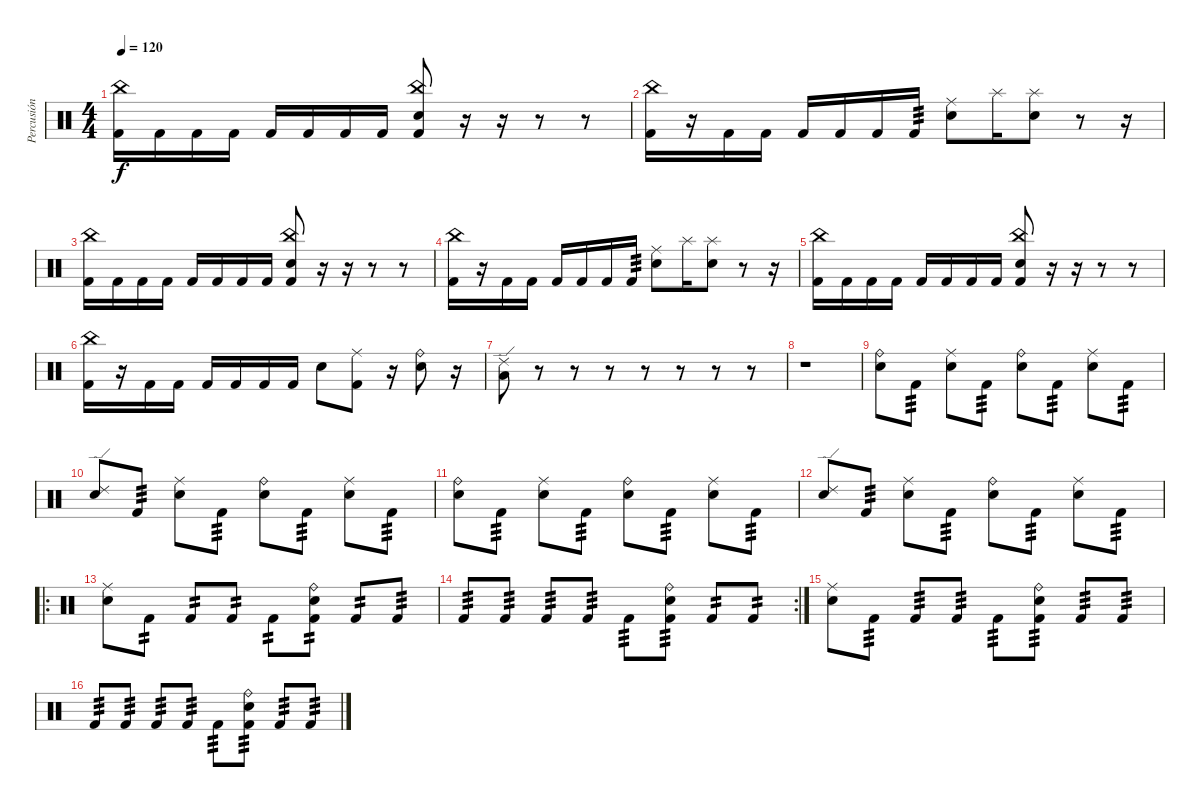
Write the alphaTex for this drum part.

\track ("Percusión" "Percusión") {instrument percussion}
\staff {score}
\articulation defaults
\ts (4 4)
\tempo 120
\clef neutral
\ks c
("Kick (hit) 2" "China (hit)").16{dy f} "Kick (hit) 2".16 "Kick (hit) 2".16 "Kick (hit) 2".16 "Kick (hit) 2".16 "Kick (hit) 2".16 "Kick (hit) 2".16 "Kick (hit) 2".16 ("Kick (hit) 2" "Electric Snare (hit)" "China (hit)").8 r.16 r.16 r.8 r.8 |
("China (hit)" "Kick (hit) 2").16 r.16 "Kick (hit) 2".16 "Kick (hit) 2".16 "Kick (hit) 2".16 "Kick (hit) 2".16 "Kick (hit) 2".16 "Kick (hit) 2".16{tp 3} ("Electric Snare (hit)" "Ride (middle)").8 "Splash (hit)".16 ("Electric Snare (hit)" "Splash (hit)").8 r.8 r.16 |
("Kick (hit) 2" "China (hit)").16 "Kick (hit) 2".16 "Kick (hit) 2".16 "Kick (hit) 2".16 "Kick (hit) 2".16 "Kick (hit) 2".16 "Kick (hit) 2".16 "Kick (hit) 2".16 ("Kick (hit) 2" "Electric Snare (hit)" "China (hit)").8 r.16 r.16 r.8 r.8 |
("China (hit)" "Kick (hit) 2").16 r.16 "Kick (hit) 2".16 "Kick (hit) 2".16 "Kick (hit) 2".16 "Kick (hit) 2".16 "Kick (hit) 2".16 "Kick (hit) 2".16{tp 3} ("Electric Snare (hit)" "Ride (middle)").8 "Splash (hit)".16 ("Electric Snare (hit)" "Splash (hit)").8 r.8 r.16 |
("Kick (hit) 2" "China (hit)").16 "Kick (hit) 2".16 "Kick (hit) 2".16 "Kick (hit) 2".16 "Kick (hit) 2".16 "Kick (hit) 2".16 "Kick (hit) 2".16 "Kick (hit) 2".16 ("Kick (hit) 2" "Electric Snare (hit)" "China (hit)").8 r.16 r.16 r.8 r.8 |
("China (hit)" "Kick (hit) 2").16 r.16 "Kick (hit) 2".16 "Kick (hit) 2".16 "Kick (hit) 2".16 "Kick (hit) 2".16 "Kick (hit) 2".16 "Kick (hit) 2".16 "Electric Snare (hit)".8 ("Kick (hit) 2" "Ride (middle)").8 r.16 ("Electric Snare (hit)" "Ride (bell)").8 r.16 |
("Low Floor Tom (hit)" "Ride (edge) 2").8 r.8 r.8 r.8 r.8 r.8 r.8 r.8 |
r.1 |
("Electric Snare (hit)" "Ride (bell)").8 "Kick (hit) 2".8{tp 3} ("Electric Snare (hit)" "Ride (middle)").8 "Kick (hit) 2".8{tp 3} ("Electric Snare (hit)" "Ride (bell)").8 "Kick (hit) 2".8{tp 3} ("Electric Snare (hit)" "Ride (middle)").8 "Kick (hit) 2".8{tp 3} |
("Electric Snare (hit)" "Ride (edge) 2").8 "Kick (hit) 2".8{tp 3} ("Electric Snare (hit)" "Ride (middle)").8 "Kick (hit) 2".8{tp 3} ("Electric Snare (hit)" "Ride (bell)").8 "Kick (hit) 2".8{tp 3} ("Electric Snare (hit)" "Ride (middle)").8 "Kick (hit) 2".8{tp 3} |
("Electric Snare (hit)" "Ride (bell)").8 "Kick (hit) 2".8{tp 3} ("Electric Snare (hit)" "Ride (middle)").8 "Kick (hit) 2".8{tp 3} ("Electric Snare (hit)" "Ride (bell)").8 "Kick (hit) 2".8{tp 3} ("Electric Snare (hit)" "Ride (middle)").8 "Kick (hit) 2".8{tp 3} |
("Electric Snare (hit)" "Ride (edge) 2").8 "Kick (hit) 2".8{tp 3} ("Electric Snare (hit)" "Ride (middle)").8 "Kick (hit) 2".8{tp 3} ("Electric Snare (hit)" "Ride (bell)").8 "Kick (hit) 2".8{tp 3} ("Electric Snare (hit)" "Ride (middle)").8 "Kick (hit) 2".8{tp 3} |
\ro
("Electric Snare (hit)" "Ride (middle)").8 "Kick (hit) 2".8{tp 2} "Kick (hit) 2".8{tp 2} "Kick (hit) 2".8{tp 2} "Kick (hit) 2".8{tp 2} ("Kick (hit) 2" "Ride (bell)" "Electric Snare (hit)").8{tp 2} "Kick (hit) 2".8{tp 2} "Kick (hit) 2".8{tp 3} |
\rc 2 "Kick (hit) 2".8{tp 3} "Kick (hit) 2".8{tp 3} "Kick (hit) 2".8{tp 3} "Kick (hit) 2".8{tp 3} "Kick (hit) 2".8{tp 3}
("Kick (hit) 2" "Ride (bell)" "Electric Snare (hit)").8{tp 3} "Kick (hit) 2".8{tp 2} "Kick (hit) 2".8{tp 2} |
("Electric Snare (hit)" "Ride (middle)").8 "Kick (hit) 2".8{tp 3} "Kick (hit) 2".8{tp 3} "Kick (hit) 2".8{tp 3} "Kick (hit) 2".8{tp 3} ("Kick (hit) 2" "Ride (bell)" "Electric Snare (hit)").8{tp 3} "Kick (hit) 2".8{tp 3} "Kick (hit) 2".8{tp 3} |
"Kick (hit) 2".8{tp 3} "Kick (hit) 2".8{tp 3} "Kick (hit) 2".8{tp 3} "Kick (hit) 2".8{tp 3} "Kick (hit) 2".8{tp 3} ("Kick (hit) 2" "Ride (bell)" "Electric Snare (hit)").8{tp 3} "Kick (hit) 2".8{tp 3} "Kick (hit) 2".8{tp 3}
